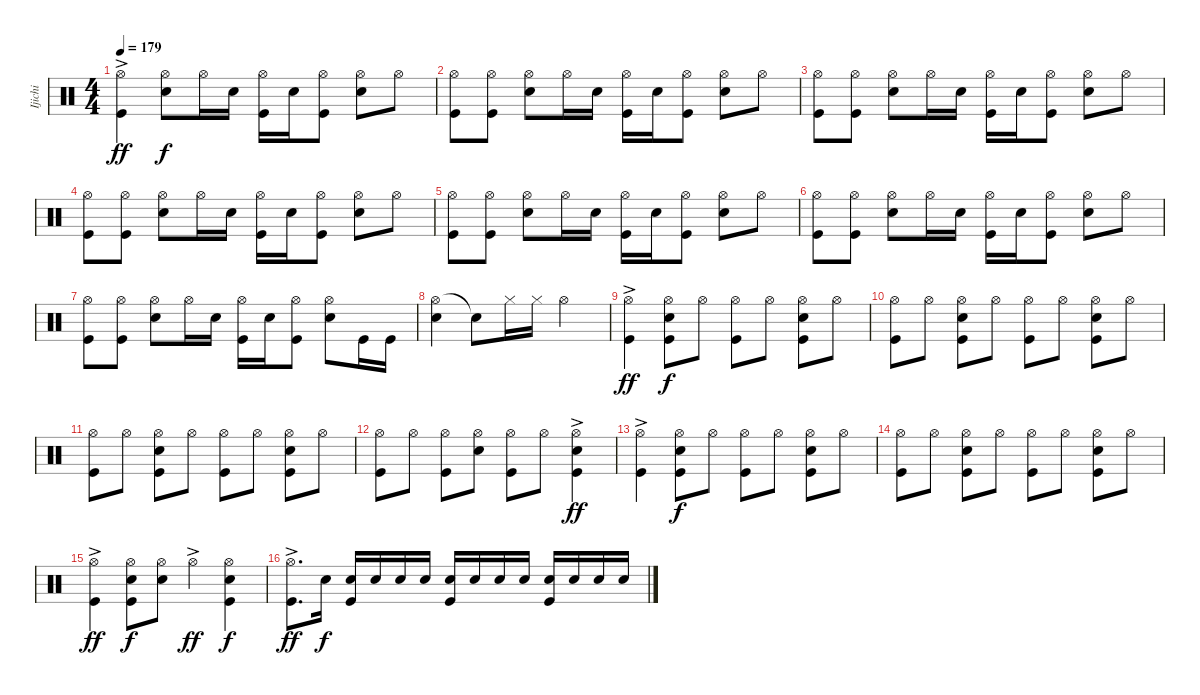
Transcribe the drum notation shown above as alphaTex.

\track ("Ijichi" "Ijichi") {instrument percussion}
\staff {score}
\articulation defaults
\ts (4 4)
\tempo 179
\clef neutral
\ks c
("Hi-Hat (open)"{ac} "Kick (hit)").4{dy ff} ("Hi-Hat (open)" "Snare (hit) 2").8{dy f} "Hi-Hat (open)".16 "Snare (hit) 2".16 ("Hi-Hat (open)" "Kick (hit)").16 "Snare (hit) 2".16 ("Hi-Hat (open)" "Kick (hit)").8 ("Hi-Hat (open)" "Snare (hit) 2").8 "Hi-Hat (open)".8 |
("Hi-Hat (open)" "Kick (hit)").8 ("Hi-Hat (open)" "Kick (hit)").8 ("Hi-Hat (open)" "Snare (hit) 2").8 "Hi-Hat (open)".16 "Snare (hit) 2".16 ("Hi-Hat (open)" "Kick (hit)").16 "Snare (hit) 2".16 ("Hi-Hat (open)" "Kick (hit)").8 ("Hi-Hat (open)" "Snare (hit) 2").8 "Hi-Hat (open)".8 |
("Hi-Hat (open)" "Kick (hit)").8 ("Hi-Hat (open)" "Kick (hit)").8 ("Hi-Hat (open)" "Snare (hit) 2").8 "Hi-Hat (open)".16 "Snare (hit) 2".16 ("Hi-Hat (open)" "Kick (hit)").16 "Snare (hit) 2".16 ("Hi-Hat (open)" "Kick (hit)").8 ("Hi-Hat (open)" "Snare (hit) 2").8 "Hi-Hat (open)".8 |
("Hi-Hat (open)" "Kick (hit)").8 ("Hi-Hat (open)" "Kick (hit)").8 ("Hi-Hat (open)" "Snare (hit) 2").8 "Hi-Hat (open)".16 "Snare (hit) 2".16 ("Hi-Hat (open)" "Kick (hit)").16 "Snare (hit) 2".16 ("Hi-Hat (open)" "Kick (hit)").8 ("Hi-Hat (open)" "Snare (hit) 2").8 "Hi-Hat (open)".8 |
("Hi-Hat (open)" "Kick (hit)").8 ("Hi-Hat (open)" "Kick (hit)").8 ("Hi-Hat (open)" "Snare (hit) 2").8 "Hi-Hat (open)".16 "Snare (hit) 2".16 ("Hi-Hat (open)" "Kick (hit)").16 "Snare (hit) 2".16 ("Hi-Hat (open)" "Kick (hit)").8 ("Hi-Hat (open)" "Snare (hit) 2").8 "Hi-Hat (open)".8 |
("Hi-Hat (open)" "Kick (hit)").8 ("Hi-Hat (open)" "Kick (hit)").8 ("Hi-Hat (open)" "Snare (hit) 2").8 "Hi-Hat (open)".16 "Snare (hit) 2".16 ("Hi-Hat (open)" "Kick (hit)").16 "Snare (hit) 2".16 ("Hi-Hat (open)" "Kick (hit)").8 ("Hi-Hat (open)" "Snare (hit) 2").8 "Hi-Hat (open)".8 |
("Hi-Hat (open)" "Kick (hit)").8 ("Hi-Hat (open)" "Kick (hit)").8 ("Hi-Hat (open)" "Snare (hit) 2").8 "Hi-Hat (open)".16 "Snare (hit) 2".16 ("Hi-Hat (open)" "Kick (hit)").16 "Snare (hit) 2".16 ("Hi-Hat (open)" "Kick (hit)").8 ("Hi-Hat (open)" "Snare (hit) 2").8 "Kick (hit)".16 "Kick (hit)".16 |
("Hi-Hat (open)" "Snare (hit) 2").4 "Snare (hit)"{t}.8 "Hi-Hat (closed)".16 "Hi-Hat (closed)".16 "Hi-Hat (open)".2 |
("Hi-Hat (open)"{ac} "Kick (hit)").4{dy ff} ("Hi-Hat (open)" "Snare (hit) 2" "Kick (hit)").8{dy f} "Hi-Hat (open)".8 ("Hi-Hat (open)" "Kick (hit)").8 "Hi-Hat (open)".8 ("Hi-Hat (open)" "Snare (hit) 2" "Kick (hit)").8 "Hi-Hat (open)".8 |
("Hi-Hat (open)" "Kick (hit)").8 "Hi-Hat (open)".8 ("Hi-Hat (open)" "Snare (hit) 2" "Kick (hit)").8 "Hi-Hat (open)".8 ("Hi-Hat (open)" "Kick (hit)").8 "Hi-Hat (open)".8 ("Hi-Hat (open)" "Snare (hit) 2" "Kick (hit)").8 "Hi-Hat (open)".8 |
("Hi-Hat (open)" "Kick (hit)").8 "Hi-Hat (open)".8 ("Hi-Hat (open)" "Snare (hit) 2" "Kick (hit)").8 "Hi-Hat (open)".8 ("Hi-Hat (open)" "Kick (hit)").8 "Hi-Hat (open)".8 ("Hi-Hat (open)" "Snare (hit) 2" "Kick (hit)").8 "Hi-Hat (open)".8 |
("Hi-Hat (open)" "Kick (hit)").8 "Hi-Hat (open)".8 ("Hi-Hat (open)" "Kick (hit)").8 ("Hi-Hat (open)" "Snare (hit) 2").8 ("Hi-Hat (open)" "Kick (hit)").8 "Hi-Hat (open)".8 ("Hi-Hat (open)"{ac} "Snare (hit) 2" "Kick (hit)").4{dy ff} |
("Hi-Hat (open)"{ac} "Kick (hit)").4 ("Hi-Hat (open)" "Snare (hit) 2" "Kick (hit)").8{dy f} "Hi-Hat (open)".8 ("Hi-Hat (open)" "Kick (hit)").8 "Hi-Hat (open)".8 ("Hi-Hat (open)" "Snare (hit) 2" "Kick (hit)").8 "Hi-Hat (open)".8 |
("Hi-Hat (open)" "Kick (hit)").8 "Hi-Hat (open)".8 ("Hi-Hat (open)" "Snare (hit) 2" "Kick (hit)").8 "Hi-Hat (open)".8 ("Hi-Hat (open)" "Kick (hit)").8 "Hi-Hat (open)".8 ("Hi-Hat (open)" "Snare (hit) 2" "Kick (hit)").8 "Hi-Hat (open)".8 |
("Hi-Hat (open)"{ac} "Kick (hit)").4{dy ff} ("Hi-Hat (open)" "Snare (hit) 2" "Kick (hit)").8{dy f} ("Hi-Hat (open)" "Snare (hit) 2").8 "Hi-Hat (open)"{ac}.4{dy ff} ("Hi-Hat (open)" "Snare (hit) 2" "Kick (hit)").4{dy f} |
("Hi-Hat (open)"{ac} "Kick (hit)").8{d dy ff} "Snare (hit) 2".16{dy f} ("Snare (hit) 2" "Kick (hit)").16 "Snare (hit) 2".16 "Snare (hit) 2".16 "Snare (hit) 2".16 ("Snare (hit) 2" "Kick (hit)").16 "Snare (hit) 2".16 "Snare (hit) 2".16 "Snare (hit) 2".16 ("Snare (hit) 2" "Kick (hit)").16 "Snare (hit) 2".16 "Snare (hit) 2".16 "Snare (hit) 2".16
